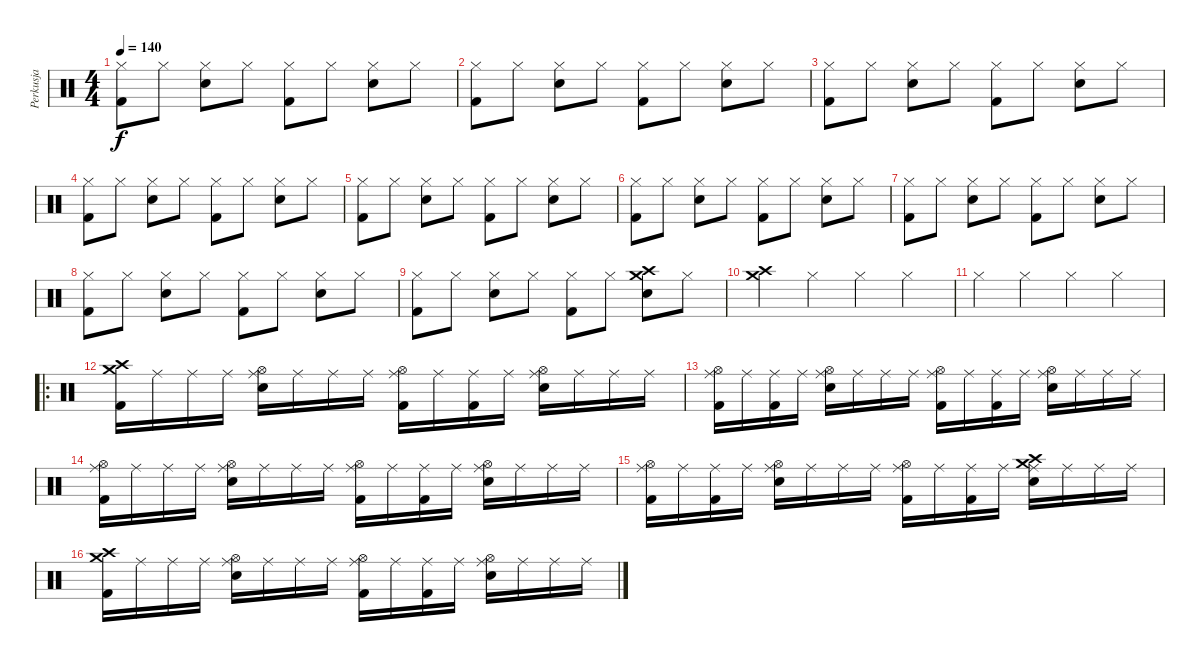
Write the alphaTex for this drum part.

\track ("Perkusja" "Perkusja") {instrument percussion}
\staff {score}
\articulation defaults
\ts (4 4)
\tempo 140
\clef neutral
\ks c
("Hi-Hat (closed)" "Kick (hit) 2").8{dy f} "Hi-Hat (closed)".8 ("Hi-Hat (closed)" "Snare (hit) 2").8 "Hi-Hat (closed)".8 ("Hi-Hat (closed)" "Kick (hit) 2").8 "Hi-Hat (closed)".8 ("Hi-Hat (closed)" "Snare (hit) 2").8 "Hi-Hat (closed)".8 |
("Hi-Hat (closed)" "Kick (hit) 2").8 "Hi-Hat (closed)".8 ("Hi-Hat (closed)" "Snare (hit) 2").8 "Hi-Hat (closed)".8 ("Hi-Hat (closed)" "Kick (hit) 2").8 "Hi-Hat (closed)".8 ("Hi-Hat (closed)" "Snare (hit) 2").8 "Hi-Hat (closed)".8 |
("Hi-Hat (closed)" "Kick (hit) 2").8 "Hi-Hat (closed)".8 ("Hi-Hat (closed)" "Snare (hit) 2").8 "Hi-Hat (closed)".8 ("Hi-Hat (closed)" "Kick (hit) 2").8 "Hi-Hat (closed)".8 ("Hi-Hat (closed)" "Snare (hit) 2").8 "Hi-Hat (closed)".8 |
("Hi-Hat (closed)" "Kick (hit) 2").8 "Hi-Hat (closed)".8 ("Hi-Hat (closed)" "Snare (hit) 2").8 "Hi-Hat (closed)".8 ("Hi-Hat (closed)" "Kick (hit) 2").8 "Hi-Hat (closed)".8 ("Hi-Hat (closed)" "Snare (hit) 2").8 "Hi-Hat (closed)".8 |
("Hi-Hat (closed)" "Kick (hit) 2").8 "Hi-Hat (closed)".8 ("Hi-Hat (closed)" "Snare (hit) 2").8 "Hi-Hat (closed)".8 ("Hi-Hat (closed)" "Kick (hit) 2").8 "Hi-Hat (closed)".8 ("Hi-Hat (closed)" "Snare (hit) 2").8 "Hi-Hat (closed)".8 |
("Hi-Hat (closed)" "Kick (hit) 2").8 "Hi-Hat (closed)".8 ("Hi-Hat (closed)" "Snare (hit) 2").8 "Hi-Hat (closed)".8 ("Hi-Hat (closed)" "Kick (hit) 2").8 "Hi-Hat (closed)".8 ("Hi-Hat (closed)" "Snare (hit) 2").8 "Hi-Hat (closed)".8 |
("Hi-Hat (closed)" "Kick (hit) 2").8 "Hi-Hat (closed)".8 ("Hi-Hat (closed)" "Snare (hit) 2").8 "Hi-Hat (closed)".8 ("Hi-Hat (closed)" "Kick (hit) 2").8 "Hi-Hat (closed)".8 ("Hi-Hat (closed)" "Snare (hit) 2").8 "Hi-Hat (closed)".8 |
("Hi-Hat (closed)" "Kick (hit) 2").8 "Hi-Hat (closed)".8 ("Hi-Hat (closed)" "Snare (hit) 2").8 "Hi-Hat (closed)".8 ("Hi-Hat (closed)" "Kick (hit) 2").8 "Hi-Hat (closed)".8 ("Hi-Hat (closed)" "Snare (hit) 2").8 "Hi-Hat (closed)".8 |
("Hi-Hat (closed)" "Kick (hit) 2").8 "Hi-Hat (closed)".8 ("Hi-Hat (closed)" "Snare (hit) 2").8 "Hi-Hat (closed)".8 ("Hi-Hat (closed)" "Kick (hit) 2").8 "Hi-Hat (closed)".8 ("Crash medium (hit)" "Crash high (hit)" "Snare (hit) 2").8 "Hi-Hat (closed)".8 |
("Crash medium (hit)" "Crash high (hit)").4 "Hi-Hat (closed)".4 "Hi-Hat (closed)".4 "Hi-Hat (closed)".4 |
"Hi-Hat (closed)".4 "Hi-Hat (closed)".4 "Hi-Hat (closed)".4 "Hi-Hat (closed)".4 |
\ro
("Crash medium (hit)" "Crash high (hit)" "Kick (hit) 2").16 "Ride (middle)".16 "Ride (middle)".16 "Ride (middle)".16 ("Ride (middle)" "Hi-Hat (open)" "Snare (hit) 2").16 "Ride (middle)".16 "Ride (middle)".16 "Ride (middle)".16 ("Ride (middle)" "Hi-Hat (open)" "Kick (hit) 2").16 "Ride (middle)".16 ("Ride (middle)" "Kick (hit) 2").16 "Ride (middle)".16 ("Ride (middle)" "Hi-Hat (open)" "Snare (hit) 2").16 "Ride (middle)".16 "Ride (middle)".16 "Ride (middle)".16 |
("Ride (middle)" "Hi-Hat (open)" "Kick (hit) 2").16 "Ride (middle)".16 ("Ride (middle)" "Kick (hit) 2").16 "Ride (middle)".16 ("Ride (middle)" "Hi-Hat (open)" "Snare (hit) 2").16 "Ride (middle)".16 "Ride (middle)".16 "Ride (middle)".16 ("Ride (middle)" "Hi-Hat (open)" "Kick (hit) 2").16 "Ride (middle)".16 ("Ride (middle)" "Kick (hit) 2").16 "Ride (middle)".16 ("Ride (middle)" "Hi-Hat (open)" "Snare (hit) 2").16 "Ride (middle)".16 "Ride (middle)".16 "Ride (middle)".16 |
("Ride (middle)" "Hi-Hat (open)" "Kick (hit) 2").16 "Ride (middle)".16 "Ride (middle)".16 "Ride (middle)".16 ("Ride (middle)" "Hi-Hat (open)" "Snare (hit) 2").16 "Ride (middle)".16 "Ride (middle)".16 "Ride (middle)".16 ("Ride (middle)" "Hi-Hat (open)" "Kick (hit) 2").16 "Ride (middle)".16 ("Ride (middle)" "Kick (hit) 2").16 "Ride (middle)".16 ("Ride (middle)" "Hi-Hat (open)" "Snare (hit) 2").16 "Ride (middle)".16 "Ride (middle)".16 "Ride (middle)".16 |
("Ride (middle)" "Hi-Hat (open)" "Kick (hit) 2").16 "Ride (middle)".16 ("Ride (middle)" "Kick (hit) 2").16 "Ride (middle)".16 ("Ride (middle)" "Hi-Hat (open)" "Snare (hit) 2").16 "Ride (middle)".16 "Ride (middle)".16 "Ride (middle)".16 ("Ride (middle)" "Hi-Hat (open)" "Kick (hit) 2").16 "Ride (middle)".16 ("Ride (middle)" "Kick (hit) 2").16 "Ride (middle)".16 ("Crash medium (hit)" "Crash high (hit)" "Ride (middle)" "Snare (hit) 2").16 "Ride (middle)".16 "Ride (middle)".16 "Ride (middle)".16 |
("Crash medium (hit)" "Crash high (hit)" "Kick (hit) 2").16 "Ride (middle)".16 "Ride (middle)".16 "Ride (middle)".16 ("Ride (middle)" "Hi-Hat (open)" "Snare (hit) 2").16 "Ride (middle)".16 "Ride (middle)".16 "Ride (middle)".16 ("Ride (middle)" "Hi-Hat (open)" "Kick (hit) 2").16 "Ride (middle)".16 ("Ride (middle)" "Kick (hit) 2").16 "Ride (middle)".16 ("Ride (middle)" "Hi-Hat (open)" "Snare (hit) 2").16 "Ride (middle)".16 "Ride (middle)".16 "Ride (middle)".16
